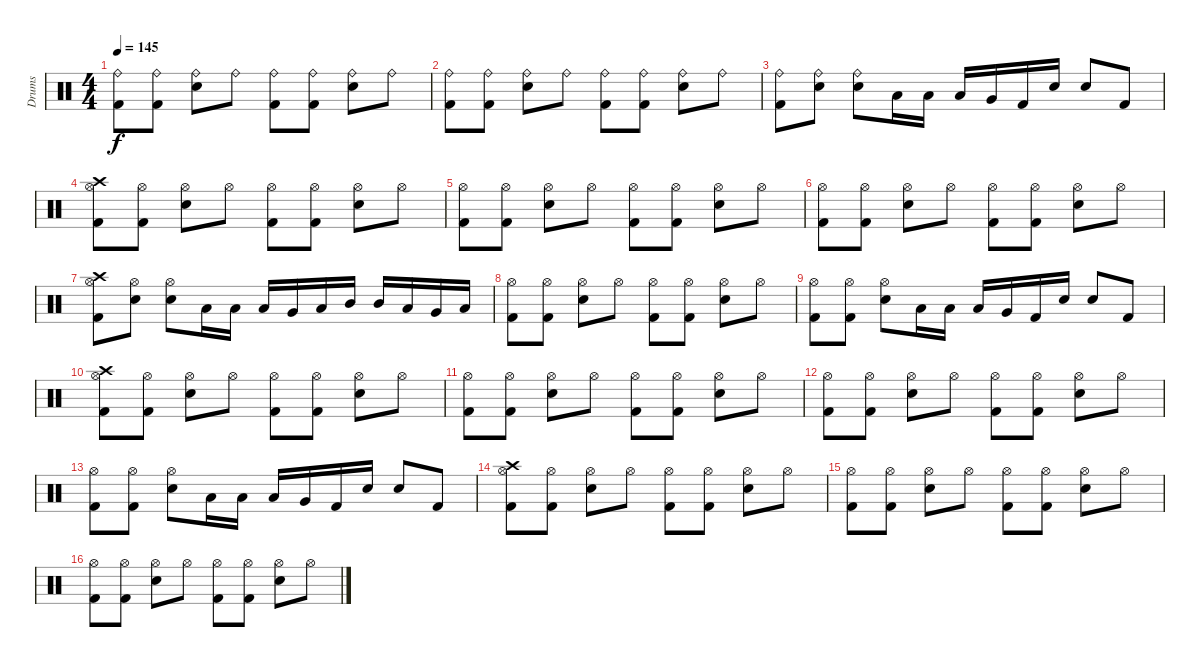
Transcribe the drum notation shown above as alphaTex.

\track ("Drums" "Drums") {instrument percussion}
\staff {score}
\articulation defaults
\ts (4 4)
\tempo 145
\clef neutral
\ks c
("Ride (bell)" "Kick (hit) 2").8{dy f} ("Ride (bell)" "Kick (hit) 2").8 ("Ride (bell)" "Electric Snare (hit)").8 "Ride (bell)".8 ("Ride (bell)" "Kick (hit) 2").8 ("Ride (bell)" "Kick (hit) 2").8 ("Ride (bell)" "Electric Snare (hit)").8 "Ride (bell)".8 |
("Ride (bell)" "Kick (hit) 2").8 ("Ride (bell)" "Kick (hit) 2").8 ("Ride (bell)" "Electric Snare (hit)").8 "Ride (bell)".8 ("Ride (bell)" "Kick (hit) 2").8 ("Ride (bell)" "Kick (hit) 2").8 ("Ride (bell)" "Electric Snare (hit)").8 "Ride (bell)".8 |
("Ride (bell)" "Kick (hit) 2").8 ("Ride (bell)" "Electric Snare (hit)").8 ("Ride (bell)" "Electric Snare (hit)").8 "Low Floor Tom (hit)".16 "Low Floor Tom (hit)".16 "Low Floor Tom (hit)".16 "Very Low Tom (hit)".16 "Kick (hit) 2".16 "Electric Snare (hit)".16 "Electric Snare (hit)".8 "Kick (hit) 2".8 |
("Crash high (hit)" "Hi-Hat (open)" "Kick (hit) 2").8 ("Hi-Hat (open)" "Kick (hit) 2").8 ("Hi-Hat (open)" "Electric Snare (hit)").8 "Hi-Hat (open)".8 ("Hi-Hat (open)" "Kick (hit) 2").8 ("Hi-Hat (open)" "Kick (hit) 2").8 ("Hi-Hat (open)" "Electric Snare (hit)").8 "Hi-Hat (open)".8 |
("Hi-Hat (open)" "Kick (hit) 2").8 ("Hi-Hat (open)" "Kick (hit) 2").8 ("Hi-Hat (open)" "Electric Snare (hit)").8 "Hi-Hat (open)".8 ("Hi-Hat (open)" "Kick (hit) 2").8 ("Hi-Hat (open)" "Kick (hit) 2").8 ("Hi-Hat (open)" "Electric Snare (hit)").8 "Hi-Hat (open)".8 |
("Hi-Hat (open)" "Kick (hit) 2").8 ("Hi-Hat (open)" "Kick (hit) 2").8 ("Hi-Hat (open)" "Electric Snare (hit)").8 "Hi-Hat (open)".8 ("Hi-Hat (open)" "Kick (hit) 2").8 ("Hi-Hat (open)" "Kick (hit) 2").8 ("Hi-Hat (open)" "Electric Snare (hit)").8 "Hi-Hat (open)".8 |
("Crash high (hit)" "Hi-Hat (open)" "Kick (hit) 2").8 ("Hi-Hat (open)" "Electric Snare (hit)").8 ("Hi-Hat (open)" "Electric Snare (hit)").8 "Low Floor Tom (hit)".16 "Low Floor Tom (hit)".16 "Low Floor Tom (hit)".16 "Very Low Tom (hit)".16 "Low Tom (hit)".16 "Mid Tom (hit)".16 "Mid Tom (hit)".16 "Low Tom (hit)".16 "Very Low Tom (hit)".16 "Low Floor Tom (hit)".16 |
("Hi-Hat (open)" "Kick (hit) 2").8 ("Hi-Hat (open)" "Kick (hit) 2").8 ("Hi-Hat (open)" "Electric Snare (hit)").8 "Hi-Hat (open)".8 ("Hi-Hat (open)" "Kick (hit) 2").8 ("Hi-Hat (open)" "Kick (hit) 2").8 ("Hi-Hat (open)" "Electric Snare (hit)").8 "Hi-Hat (open)".8 |
("Hi-Hat (open)" "Kick (hit) 2").8 ("Hi-Hat (open)" "Kick (hit) 2").8 ("Hi-Hat (open)" "Electric Snare (hit)").8 "Low Floor Tom (hit)".16 "Low Floor Tom (hit)".16 "Low Floor Tom (hit)".16 "Very Low Tom (hit)".16 "Kick (hit) 2".16 "Electric Snare (hit)".16 "Electric Snare (hit)".8 "Kick (hit) 2".8 |
("Crash high (hit)" "Hi-Hat (open)" "Kick (hit) 2").8 ("Hi-Hat (open)" "Kick (hit) 2").8 ("Hi-Hat (open)" "Electric Snare (hit)").8 "Hi-Hat (open)".8 ("Hi-Hat (open)" "Kick (hit) 2").8 ("Hi-Hat (open)" "Kick (hit) 2").8 ("Hi-Hat (open)" "Electric Snare (hit)").8 "Hi-Hat (open)".8 |
("Hi-Hat (open)" "Kick (hit) 2").8 ("Hi-Hat (open)" "Kick (hit) 2").8 ("Hi-Hat (open)" "Electric Snare (hit)").8 "Hi-Hat (open)".8 ("Hi-Hat (open)" "Kick (hit) 2").8 ("Hi-Hat (open)" "Kick (hit) 2").8 ("Hi-Hat (open)" "Electric Snare (hit)").8 "Hi-Hat (open)".8 |
("Hi-Hat (open)" "Kick (hit) 2").8 ("Hi-Hat (open)" "Kick (hit) 2").8 ("Hi-Hat (open)" "Electric Snare (hit)").8 "Hi-Hat (open)".8 ("Hi-Hat (open)" "Kick (hit) 2").8 ("Hi-Hat (open)" "Kick (hit) 2").8 ("Hi-Hat (open)" "Electric Snare (hit)").8 "Hi-Hat (open)".8 |
("Hi-Hat (open)" "Kick (hit) 2").8 ("Hi-Hat (open)" "Kick (hit) 2").8 ("Hi-Hat (open)" "Electric Snare (hit)").8 "Low Floor Tom (hit)".16 "Low Floor Tom (hit)".16 "Low Floor Tom (hit)".16 "Very Low Tom (hit)".16 "Kick (hit) 2".16 "Electric Snare (hit)".16 "Electric Snare (hit)".8 "Kick (hit) 2".8 |
("Crash high (hit)" "Hi-Hat (open)" "Kick (hit) 2").8 ("Hi-Hat (open)" "Kick (hit) 2").8 ("Hi-Hat (open)" "Electric Snare (hit)").8 "Hi-Hat (open)".8 ("Hi-Hat (open)" "Kick (hit) 2").8 ("Hi-Hat (open)" "Kick (hit) 2").8 ("Hi-Hat (open)" "Electric Snare (hit)").8 "Hi-Hat (open)".8 |
("Hi-Hat (open)" "Kick (hit) 2").8 ("Hi-Hat (open)" "Kick (hit) 2").8 ("Hi-Hat (open)" "Electric Snare (hit)").8 "Hi-Hat (open)".8 ("Hi-Hat (open)" "Kick (hit) 2").8 ("Hi-Hat (open)" "Kick (hit) 2").8 ("Hi-Hat (open)" "Electric Snare (hit)").8 "Hi-Hat (open)".8 |
("Hi-Hat (open)" "Kick (hit) 2").8 ("Hi-Hat (open)" "Kick (hit) 2").8 ("Hi-Hat (open)" "Electric Snare (hit)").8 "Hi-Hat (open)".8 ("Hi-Hat (open)" "Kick (hit) 2").8 ("Hi-Hat (open)" "Kick (hit) 2").8 ("Hi-Hat (open)" "Electric Snare (hit)").8 "Hi-Hat (open)".8
